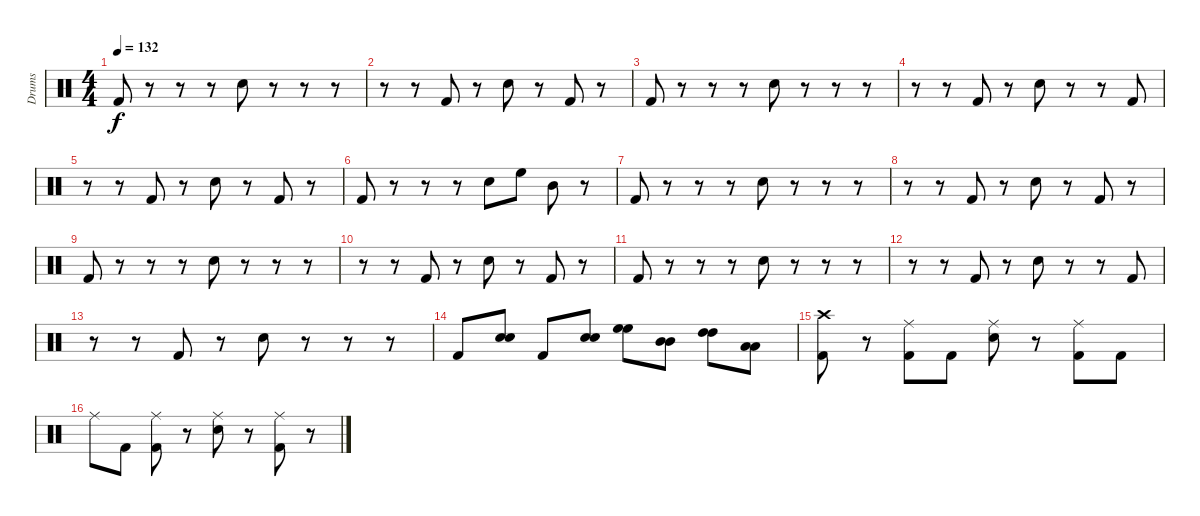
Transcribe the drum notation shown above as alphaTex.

\track ("Drums" "Drums") {instrument percussion}
\staff {score}
\articulation defaults
\ts (4 4)
\tempo 132
\clef neutral
\ks c "Kick (hit) 2".8{dy f}
r.8 r.8 r.8 "Snare (hit) 2".8 r.8 r.8 r.8 |
r.8 r.8 "Kick (hit) 2".8 r.8 "Snare (hit) 2".8 r.8 "Kick (hit) 2".8 r.8 |
"Kick (hit) 2".8 r.8 r.8 r.8 "Snare (hit) 2".8 r.8 r.8 r.8 |
r.8 r.8 "Kick (hit) 2".8 r.8 "Snare (hit) 2".8 r.8 r.8 "Kick (hit) 2".8 |
r.8 r.8 "Kick (hit) 2".8 r.8 "Snare (hit) 2".8 r.8 "Kick (hit) 2".8 r.8 |
"Kick (hit) 2".8 r.8 r.8 r.8 "Snare (hit) 2".8 "High Floor Tom (hit)".8 "Mid Tom (hit)".8 r.8 |
"Kick (hit) 2".8 r.8 r.8 r.8 "Snare (hit) 2".8 r.8 r.8 r.8 |
r.8 r.8 "Kick (hit) 2".8 r.8 "Snare (hit) 2".8 r.8 "Kick (hit) 2".8 r.8 |
"Kick (hit) 2".8 r.8 r.8 r.8 "Snare (hit) 2".8 r.8 r.8 r.8 |
r.8 r.8 "Kick (hit) 2".8 r.8 "Snare (hit) 2".8 r.8 "Kick (hit) 2".8 r.8 |
"Kick (hit) 2".8 r.8 r.8 r.8 "Snare (hit) 2".8 r.8 r.8 r.8 |
r.8 r.8 "Kick (hit) 2".8 r.8 "Snare (hit) 2".8 r.8 r.8 "Kick (hit) 2".8 |
r.8 r.8 "Kick (hit) 2".8 r.8 "Snare (hit) 2".8 r.8 r.8 r.8 |
"Kick (hit) 2".8 ("Snare (hit) 2" "Snare (hit) 2").8 "Kick (hit) 2".8 ("Snare (hit) 2" "Snare (hit) 2").8 ("High Floor Tom (hit)" "High Floor Tom (hit)").8 ("Mid Tom (hit)" "Mid Tom (hit)").8 ("High Tom (hit)" "High Tom (hit)").8 ("Low Tom (hit)" "Low Tom (hit)").8 |
("Kick (hit) 2" "Crash high (hit)").8 r.8 ("Kick (hit) 2" "Ride (middle)").8 "Kick (hit) 2".8 ("Snare (hit) 2" "Ride (middle)").8 r.8 ("Kick (hit) 2" "Ride (middle)").8 "Kick (hit) 2".8 |
"Ride (middle)".8 "Kick (hit) 2".8 ("Kick (hit) 2" "Ride (middle)").8 r.8 ("Snare (hit) 2" "Ride (middle)").8 r.8 ("Kick (hit) 2" "Ride (middle)").8 r.8
